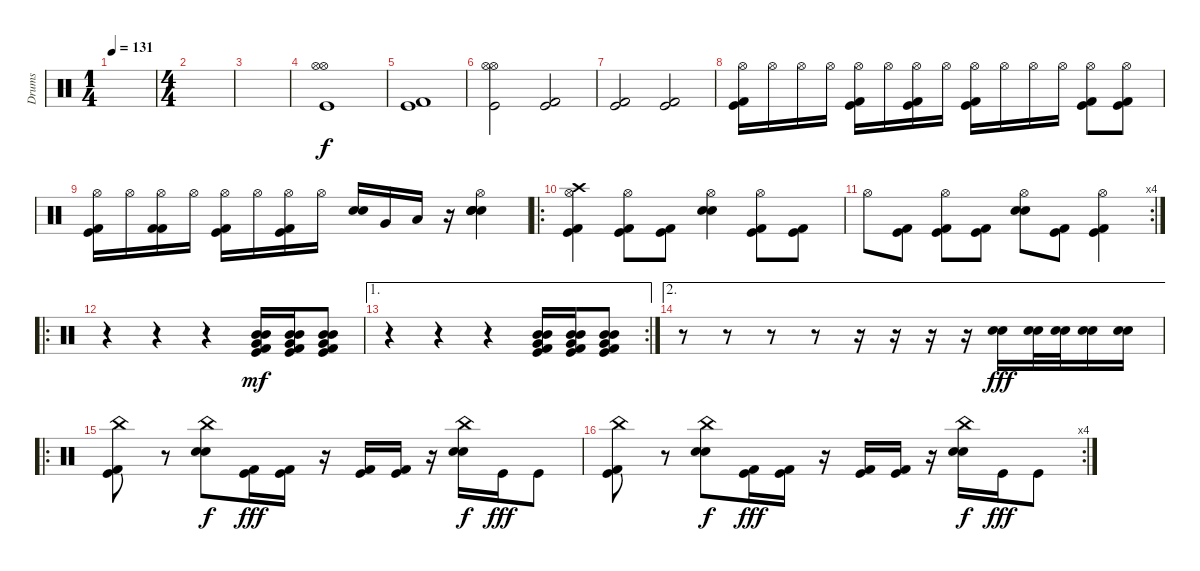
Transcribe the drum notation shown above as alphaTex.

\track ("Drums" "Drums") {instrument percussion}
\staff {score}
\articulation defaults
\ts (1 4)
\tempo 131
\clef neutral
\ks c
|
\ts (4 4)
|
|
("Hi-Hat (open)" "Hi-Hat (open)" "Kick (hit)").1 |
("Kick (hit)" "Kick (hit) 2").1 |
("Hi-Hat (open)" "Hi-Hat (open)" "Kick (hit)").2 ("Kick (hit) 2" "Kick (hit)").2 |
("Kick (hit)" "Kick (hit) 2").2 ("Kick (hit)" "Kick (hit) 2").2 |
("Hi-Hat (open)" "Kick (hit) 2" "Kick (hit)").16 "Hi-Hat (open)".16 "Hi-Hat (open)".16 "Hi-Hat (open)".16 ("Hi-Hat (open)" "Kick (hit)" "Kick (hit) 2").16 "Hi-Hat (open)".16 ("Hi-Hat (open)" "Kick (hit)" "Kick (hit) 2").16 "Hi-Hat (open)".16 ("Hi-Hat (open)" "Kick (hit)" "Kick (hit) 2").16 "Hi-Hat (open)".16 "Hi-Hat (open)".16 "Hi-Hat (open)".16 ("Hi-Hat (open)" "Kick (hit)" "Kick (hit) 2").8 ("Hi-Hat (open)" "Kick (hit) 2" "Kick (hit)").8 |
("Hi-Hat (open)" "Kick (hit) 2" "Kick (hit)").16 "Hi-Hat (open)".16 ("Hi-Hat (open)" "Kick (hit) 2" "Kick (hit) 2").16 "Hi-Hat (open)".16 ("Hi-Hat (open)" "Kick (hit)" "Kick (hit) 2").16 "Hi-Hat (open)".16 ("Hi-Hat (open)" "Kick (hit)" "Kick (hit) 2").16 "Hi-Hat (open)".16 ("Snare (hit) 2" "Electric Snare (hit)").16 "Very Low Tom (hit)".16 "Low Floor Tom (hit)".16 r.16 ("Hi-Hat (open)" "Snare (hit) 2" "Snare (hit) 2" "Electric Snare (hit)" "Electric Snare (hit)").4 |
\ro
("Crash high (hit)" "Hi-Hat (open)" "Kick (hit)" "Kick (hit) 2").4 ("Hi-Hat (open)" "Kick (hit) 2" "Kick (hit)").8 ("Kick (hit) 2" "Kick (hit)").8 ("Hi-Hat (open)" "Electric Snare (hit)" "Snare (hit) 2").4 ("Hi-Hat (open)" "Kick (hit)" "Kick (hit) 2").8 ("Kick (hit)" "Kick (hit) 2").8 |
\rc 4 "Hi-Hat (open)".8
("Kick (hit) 2" "Kick (hit)").8 ("Hi-Hat (open)" "Kick (hit)" "Kick (hit) 2").8 ("Kick (hit) 2" "Kick (hit)").8 ("Hi-Hat (open)" "Snare (hit) 2" "Electric Snare (hit)").8 ("Kick (hit) 2" "Kick (hit)").8 ("Hi-Hat (open)" "Kick (hit) 2" "Kick (hit)").4 |
\ro
r.4 r.4 r.4 ("Kick (hit) 2" "Kick (hit)" "Very Low Tom (hit)" "Mid Tom (hit)" "Mid Tom (hit)").16{dy mf} ("Kick (hit) 2" "Kick (hit)" "Very Low Tom (hit)" "Mid Tom (hit)" "Mid Tom (hit)").16 ("Kick (hit) 2" "Kick (hit)" "Very Low Tom (hit)" "Mid Tom (hit)" "Mid Tom (hit)").8 |
\ae 1
\rc 2
r.4 r.4 r.4 ("Kick (hit) 2" "Kick (hit)" "Very Low Tom (hit)" "Mid Tom (hit)" "Mid Tom (hit)").16 ("Kick (hit) 2" "Kick (hit)" "Very Low Tom (hit)" "Mid Tom (hit)" "Mid Tom (hit)").16 ("Kick (hit) 2" "Kick (hit)" "Very Low Tom (hit)" "Mid Tom (hit)" "Mid Tom (hit)").8 |
\ae 2
r.8 r.8 r.8 r.8 r.16 r.16 r.16 r.16 ("Snare (hit) 2" "Electric Snare (hit)").16{dy fff} ("Snare (hit) 2" "Electric Snare (hit)").32 ("Snare (hit) 2" "Electric Snare (hit)").32 ("Snare (hit) 2" "Electric Snare (hit)").16 ("Snare (hit) 2" "Electric Snare (hit)").16 |
\ro
("China (hit)" "Kick (hit) 2" "Kick (hit)").8 r.8 ("Snare (hit) 2" "Electric Snare (hit)" "China (hit)").8{dy f} ("Kick (hit) 2" "Kick (hit)").16{dy fff} ("Kick (hit) 2" "Kick (hit)").16 r.16 ("Kick (hit) 2" "Kick (hit)").16 ("Kick (hit) 2" "Kick (hit)").16 r.16 ("Snare (hit) 2" "Electric Snare (hit)" "China (hit)").16{dy f} "Kick (hit)".16{dy fff} "Kick (hit)".8 |
\rc 4
("China (hit)" "Kick (hit) 2" "Kick (hit)").8 r.8 ("Snare (hit) 2" "Electric Snare (hit)" "China (hit)").8{dy f} ("Kick (hit) 2" "Kick (hit)").16{dy fff} ("Kick (hit) 2" "Kick (hit)").16 r.16 ("Kick (hit) 2" "Kick (hit)").16 ("Kick (hit) 2" "Kick (hit)").16 r.16 ("Snare (hit) 2" "Electric Snare (hit)" "China (hit)").16{dy f} "Kick (hit)".16{dy fff} "Kick (hit)".8
